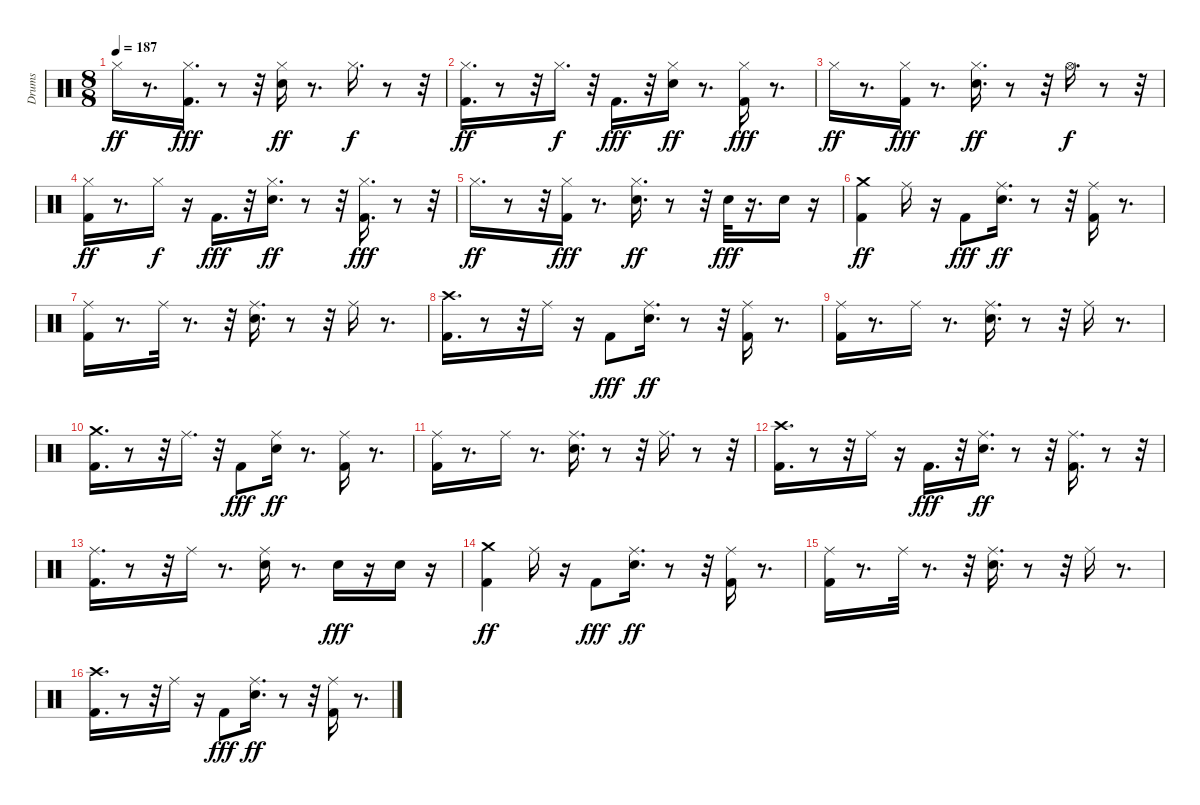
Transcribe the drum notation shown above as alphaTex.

\track ("Drums" "Drums") {instrument percussion}
\staff {score}
\articulation defaults
\ts (8 8)
\tempo 187
\clef neutral
\ks c "Hi-Hat (closed)".16{dy ff}
r.8{d} ("Kick (hit) 2" "Hi-Hat (closed)").16{d dy fff} r.8 r.32 ("Snare (hit) 2" "Hi-Hat (closed)").16{dy ff} r.8{d} "Hi-Hat (closed)".16{d dy f} r.8 r.32 |
("Kick (hit) 2" "Hi-Hat (closed)").16{d dy ff} r.8 r.32 "Hi-Hat (closed)".16{d dy f} r.32 "Kick (hit) 2".16{d dy fff} r.32 ("Snare (hit) 2" "Hi-Hat (closed)").16{dy ff} r.8{d} ("Kick (hit) 2" "Hi-Hat (closed)").16{dy fff} r.8{d} |
"Hi-Hat (closed)".16{dy ff} r.8{d} ("Kick (hit) 2" "Hi-Hat (closed)").16{dy fff} r.8{d} ("Snare (hit) 2" "Hi-Hat (closed)").16{d dy ff} r.8 r.32 "Hi-Hat (open)".16{d dy f} r.8 r.32 |
("Kick (hit) 2" "Hi-Hat (closed)").16{dy ff} r.8{d} "Hi-Hat (closed)".16{dy f} r.16 "Kick (hit) 2".16{d dy fff} r.32 ("Snare (hit) 2" "Hi-Hat (closed)").16{d dy ff} r.8 r.32 ("Kick (hit) 2" "Hi-Hat (closed)").16{d dy fff} r.8 r.32 |
"Hi-Hat (closed)".16{d dy ff} r.8 r.32 ("Kick (hit) 2" "Hi-Hat (closed)").16{dy fff} r.8{d} ("Snare (hit) 2" "Hi-Hat (closed)").16{d dy ff} r.8 r.32 "Snare (hit) 2".32{dy fff} r.16{d} "Snare (hit) 2".16 r.16 |
("Kick (hit) 2" "Crash medium (hit)").4{dy ff} "Ride (middle)".16 r.16 "Kick (hit) 2".8{dy fff} ("Snare (hit) 2" "Ride (middle)").16{d dy ff} r.8 r.32 ("Kick (hit) 2" "Ride (middle)").16 r.8{d} |
("Kick (hit) 2" "Ride (middle)").16 r.8{d} "Ride (middle)".32 r.8{d} r.32 ("Snare (hit) 2" "Ride (middle)").16{d} r.8 r.32 "Ride (middle)".16 r.8{d} |
("Kick (hit) 2" "Crash high (hit)").16{d} r.8 r.32 "Ride (middle)".16 r.16 "Kick (hit) 2".8{dy fff} ("Snare (hit) 2" "Ride (middle)").16{d dy ff} r.8 r.32 ("Kick (hit) 2" "Ride (middle)").16 r.8{d} |
("Kick (hit) 2" "Ride (middle)").16 r.8{d} "Ride (middle)".16 r.8{d} ("Snare (hit) 2" "Ride (middle)").16{d} r.8 r.32 "Ride (middle)".16 r.8{d} |
("Kick (hit) 2" "Crash medium (hit)").16{d} r.8 r.32 "Ride (middle)".16{d} r.32 "Kick (hit) 2".8{dy fff} ("Snare (hit) 2" "Ride (middle)").16{dy ff} r.8{d} ("Kick (hit) 2" "Ride (middle)").16 r.8{d} |
("Kick (hit) 2" "Ride (middle)").16 r.8{d} "Ride (middle)".16 r.8{d} ("Snare (hit) 2" "Ride (middle)").16{d} r.8 r.32 "Ride (middle)".16{d} r.8 r.32 |
("Kick (hit) 2" "Crash high (hit)").16{d} r.8 r.32 "Ride (middle)".16 r.16 "Kick (hit) 2".16{d dy fff} r.32 ("Snare (hit) 2" "Ride (middle)").16{d dy ff} r.8 r.32 ("Kick (hit) 2" "Ride (middle)").16{d} r.8 r.32 |
("Kick (hit) 2" "Ride (middle)").16{d} r.8 r.32 "Ride (middle)".16 r.8{d} ("Snare (hit) 2" "Ride (middle)").16 r.8{d} "Snare (hit) 2".16{dy fff} r.16 "Snare (hit) 2".16 r.16 |
("Kick (hit) 2" "Crash medium (hit)").4{dy ff} "Ride (middle)".16 r.16 "Kick (hit) 2".8{dy fff} ("Snare (hit) 2" "Ride (middle)").16{d dy ff} r.8 r.32 ("Kick (hit) 2" "Ride (middle)").16 r.8{d} |
("Kick (hit) 2" "Ride (middle)").16 r.8{d} "Ride (middle)".32 r.8{d} r.32 ("Snare (hit) 2" "Ride (middle)").16{d} r.8 r.32 "Ride (middle)".16 r.8{d} |
("Kick (hit) 2" "Crash high (hit)").16{d} r.8 r.32 "Ride (middle)".16 r.16 "Kick (hit) 2".8{dy fff} ("Snare (hit) 2" "Ride (middle)").16{d dy ff} r.8 r.32 ("Kick (hit) 2" "Ride (middle)").16 r.8{d}
